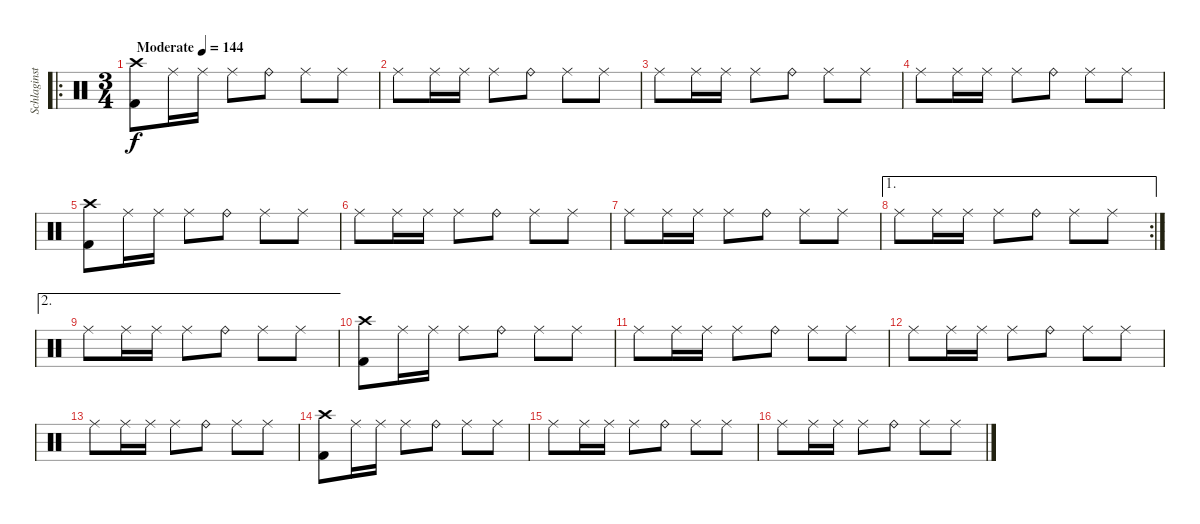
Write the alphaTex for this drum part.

\track ("Schlaginstrumente - Auswahl" "Schlaginst") {instrument percussion}
\staff {score}
\articulation defaults
\ro
\ts (3 4)
\tempo (144 "Moderate")
\clef neutral
\ks c
("Crash high (hit)" "Kick (hit) 2").8{dy f} "Ride (middle)".16 "Ride (middle)".16 "Ride (middle)".8 "Ride (bell)".8 "Ride (middle)".8 "Ride (middle)".8 |
"Ride (middle)".8 "Ride (middle)".16 "Ride (middle)".16 "Ride (middle)".8 "Ride (bell)".8 "Ride (middle)".8 "Ride (middle)".8 |
"Ride (middle)".8 "Ride (middle)".16 "Ride (middle)".16 "Ride (middle)".8 "Ride (bell)".8 "Ride (middle)".8 "Ride (middle)".8 |
"Ride (middle)".8 "Ride (middle)".16 "Ride (middle)".16 "Ride (middle)".8 "Ride (bell)".8 "Ride (middle)".8 "Ride (middle)".8 |
("Crash high (hit)" "Kick (hit) 2").8 "Ride (middle)".16 "Ride (middle)".16 "Ride (middle)".8 "Ride (bell)".8 "Ride (middle)".8 "Ride (middle)".8 |
"Ride (middle)".8 "Ride (middle)".16 "Ride (middle)".16 "Ride (middle)".8 "Ride (bell)".8 "Ride (middle)".8 "Ride (middle)".8 |
"Ride (middle)".8 "Ride (middle)".16 "Ride (middle)".16 "Ride (middle)".8 "Ride (bell)".8 "Ride (middle)".8 "Ride (middle)".8 |
\ae 1
\rc 2 "Ride (middle)".8 "Ride (middle)".16 "Ride (middle)".16 "Ride (middle)".8 "Ride (bell)".8 "Ride (middle)".8 "Ride (middle)".8
|
\ae 2 "Ride (middle)".8 "Ride (middle)".16 "Ride (middle)".16 "Ride (middle)".8 "Ride (bell)".8 "Ride (middle)".8 "Ride (middle)".8
|
("Crash high (hit)" "Kick (hit) 2").8 "Ride (middle)".16 "Ride (middle)".16 "Ride (middle)".8 "Ride (bell)".8 "Ride (middle)".8 "Ride (middle)".8 |
"Ride (middle)".8 "Ride (middle)".16 "Ride (middle)".16 "Ride (middle)".8 "Ride (bell)".8 "Ride (middle)".8 "Ride (middle)".8 |
"Ride (middle)".8 "Ride (middle)".16 "Ride (middle)".16 "Ride (middle)".8 "Ride (bell)".8 "Ride (middle)".8 "Ride (middle)".8 |
"Ride (middle)".8 "Ride (middle)".16 "Ride (middle)".16 "Ride (middle)".8 "Ride (bell)".8 "Ride (middle)".8 "Ride (middle)".8 |
("Crash high (hit)" "Kick (hit) 2").8 "Ride (middle)".16 "Ride (middle)".16 "Ride (middle)".8 "Ride (bell)".8 "Ride (middle)".8 "Ride (middle)".8 |
"Ride (middle)".8 "Ride (middle)".16 "Ride (middle)".16 "Ride (middle)".8 "Ride (bell)".8 "Ride (middle)".8 "Ride (middle)".8 |
"Ride (middle)".8 "Ride (middle)".16 "Ride (middle)".16 "Ride (middle)".8 "Ride (bell)".8 "Ride (middle)".8 "Ride (middle)".8
